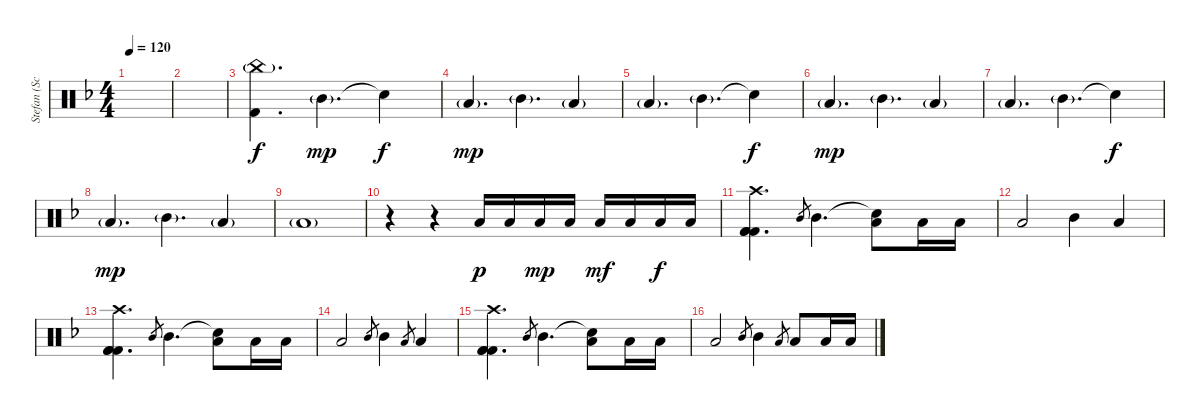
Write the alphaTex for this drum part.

\track ("Stefan (Schlagzeug)" "Stefan (Sc") {instrument percussion}
\staff {score}
\articulation defaults
\ts (4 4)
\tempo 120
\clef neutral
\ks f
|
|
("China (hit)"{g} "Kick (hit) 2").4{d} "Mid Tom (hit)"{g}.4{d dy mp} "Snare (hit)"{t}.4{dy f} |
"Low Tom (hit)"{g}.4{d dy mp} "Mid Tom (hit)"{g}.4{d} "Low Tom (hit)"{g}.4 |
"Low Tom (hit)"{g}.4{d} "Mid Tom (hit)"{g}.4{d} "Snare (hit)"{t}.4{dy f} |
"Low Tom (hit)"{g}.4{d dy mp} "Mid Tom (hit)"{g}.4{d} "Low Tom (hit)"{g}.4 |
"Low Tom (hit)"{g}.4{d} "Mid Tom (hit)"{g}.4{d} "Snare (hit)"{t}.4{dy f} |
"Low Tom (hit)"{g}.4{d dy mp} "Mid Tom (hit)"{g}.4{d} "Low Tom (hit)"{g}.4 |
"Low Tom (hit)"{g}.1 |
r.4 r.4 "Low Tom (hit)".16{dy p} "Low Tom (hit)".16 "Low Tom (hit)".16{dy mp} "Low Tom (hit)".16 "Low Tom (hit)".16{dy mf} "Low Tom (hit)".16 "Low Tom (hit)".16{dy f} "Low Tom (hit)".16 |
("Crash high (hit)" "Kick (hit) 2" "Kick (hit) 2" "Kick (hit) 2").4{d} "Mid Tom (hit)".8{gr} "Mid Tom (hit)".4{d} ("Snare (hit)"{t} "Low Tom (hit)").8 "Low Tom (hit)".16 "Low Tom (hit)".16 |
"Low Tom (hit)".2 "Mid Tom (hit)".4 "Low Tom (hit)".4 |
("Crash high (hit)" "Kick (hit) 2" "Kick (hit) 2" "Kick (hit) 2").4{d} "Mid Tom (hit)".8{gr} "Mid Tom (hit)".4{d} ("Snare (hit)"{t} "Low Tom (hit)").8 "Low Tom (hit)".16 "Low Tom (hit)".16 |
"Low Tom (hit)".2 "Mid Tom (hit)".8{gr} "Mid Tom (hit)".4 "Low Tom (hit)".8{gr} "Low Tom (hit)".4 |
("Crash high (hit)" "Kick (hit) 2" "Kick (hit) 2" "Kick (hit) 2").4{d} "Mid Tom (hit)".8{gr} "Mid Tom (hit)".4{d} ("Snare (hit)"{t} "Low Tom (hit)").8 "Low Tom (hit)".16 "Low Tom (hit)".16 |
"Low Tom (hit)".2 "Mid Tom (hit)".8{gr} "Mid Tom (hit)".4 "Low Tom (hit)".8{gr} "Low Tom (hit)".8 "Low Tom (hit)".16 "Low Tom (hit)".16
